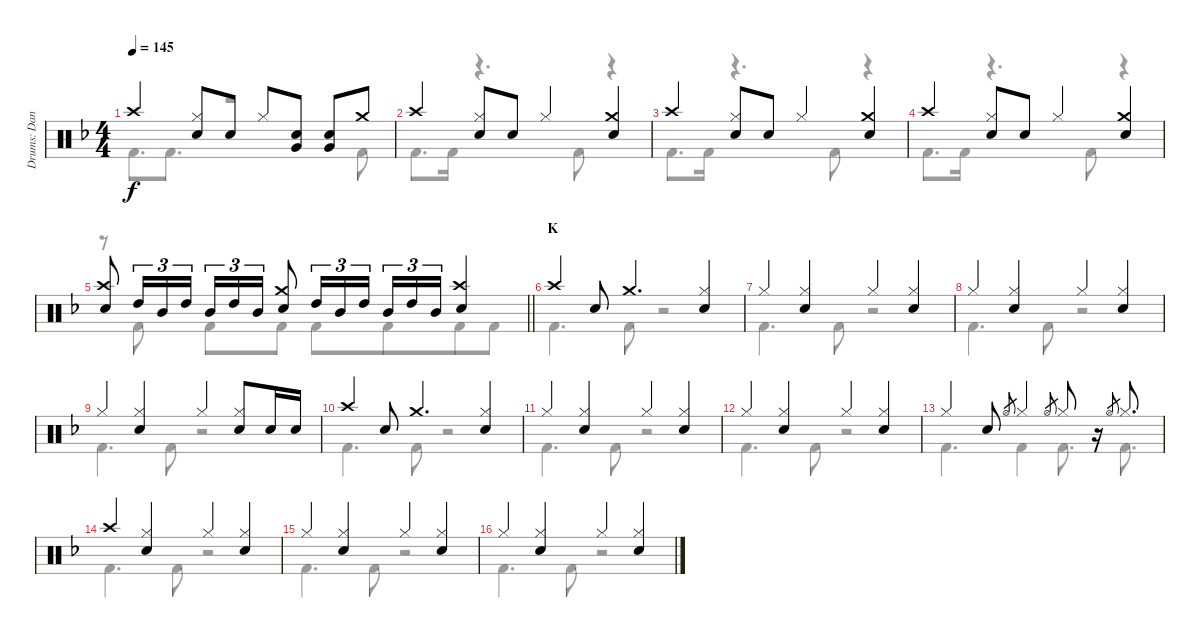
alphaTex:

\track ("Drums: Dana" "Drums: Dan") {instrument percussion}
\staff {score}
\articulation defaults
\voice
\ts (4 4)
\tempo 145
\clef neutral
\ks f "Crash high (hit)".4{dy f}
("Hi-Hat (closed)" "Snare (hit) 2").8 "Snare (hit) 2".8 "Hi-Hat (closed)".8 ("Snare (hit) 2" "Very Low Tom (hit)").8 ("Snare (hit) 2" "Very Low Tom (hit)").8 "Crash medium (hit)".8 |
"Crash high (hit)".4 ("Hi-Hat (closed)" "Snare (hit) 2").8 "Snare (hit) 2".8 "Hi-Hat (closed)".4 ("Crash medium (hit)" "Snare (hit) 2").4 |
"Crash high (hit)".4 ("Hi-Hat (closed)" "Snare (hit) 2").8 "Snare (hit) 2".8 "Hi-Hat (closed)".4 ("Crash medium (hit)" "Snare (hit) 2").4 |
"Crash high (hit)".4 ("Hi-Hat (closed)" "Snare (hit) 2").8 "Snare (hit) 2".8 "Hi-Hat (closed)".4 ("Crash medium (hit)" "Snare (hit) 2").4 |
\barLineRight lightlight
("Crash high (hit)" "Snare (hit) 2").8 "High Tom (hit)".16{tu (3 2)} "Mid Tom (hit)".16{tu (3 2)} "High Tom (hit)".16{tu (3 2)} "Mid Tom (hit)".16{tu (3 2)} "High Tom (hit)".16{tu (3 2)} "Mid Tom (hit)".16{tu (3 2)} ("Crash medium (hit)" "Snare (hit) 2").8 "High Tom (hit)".16{tu (3 2)} "Mid Tom (hit)".16{tu (3 2)} "High Tom (hit)".16{tu (3 2) beam splitsecondary} "Mid Tom (hit)".16{tu (3 2)} "High Tom (hit)".16{tu (3 2)} "Mid Tom (hit)".16{tu (3 2)} ("Crash high (hit)" "Snare (hit) 2").4 |
\section ("" "K")
"Crash high (hit)".4 "Snare (hit) 2".8 "Crash medium (hit)".4{d} ("Hi-Hat (closed)" "Snare (hit) 2").4 |
"Hi-Hat (closed)".4 ("Hi-Hat (closed)" "Snare (hit) 2").4 "Hi-Hat (closed)".4 ("Hi-Hat (closed)" "Snare (hit) 2").4 |
"Hi-Hat (closed)".4 ("Hi-Hat (closed)" "Snare (hit) 2").4 "Hi-Hat (closed)".4 ("Hi-Hat (closed)" "Snare (hit) 2").4 |
"Hi-Hat (closed)".4 ("Hi-Hat (closed)" "Snare (hit) 2").4 "Hi-Hat (closed)".4 ("Hi-Hat (closed)" "Snare (hit) 2").8 "Snare (hit) 2".16 "Snare (hit) 2".16 |
"Crash high (hit)".4 "Snare (hit) 2".8 "Crash medium (hit)".4{d} ("Hi-Hat (closed)" "Snare (hit) 2").4 |
"Hi-Hat (closed)".4 ("Hi-Hat (closed)" "Snare (hit) 2").4 "Hi-Hat (closed)".4 ("Hi-Hat (closed)" "Snare (hit) 2").4 |
"Hi-Hat (closed)".4 ("Hi-Hat (closed)" "Snare (hit) 2").4 "Hi-Hat (closed)".4 ("Hi-Hat (closed)" "Snare (hit) 2").4 |
"Hi-Hat (closed)".4 "Snare (hit) 2".8 "Hi-Hat (open)".8{gr} "Hi-Hat (closed)".4 "Hi-Hat (open)".8{gr} "Hi-Hat (closed)".8 r.16 "Hi-Hat (open)".8{gr} "Hi-Hat (closed)".8{d} |
"Crash high (hit)".4 ("Hi-Hat (closed)" "Snare (hit) 2").4 "Hi-Hat (closed)".4 ("Hi-Hat (closed)" "Snare (hit) 2").4 |
"Hi-Hat (closed)".4 ("Hi-Hat (closed)" "Snare (hit) 2").4 "Hi-Hat (closed)".4 ("Hi-Hat (closed)" "Snare (hit) 2").4 |
"Hi-Hat (closed)".4 ("Hi-Hat (closed)" "Snare (hit) 2").4 "Hi-Hat (closed)".4 ("Hi-Hat (closed)" "Snare (hit) 2").4
\voice
\clef neutral
\ottava regular
\simile none
\ks f "Kick (hit) 2".8{d dy f} "Kick (hit) 2".8{d}
r.2 "Kick (hit) 2".8 |
"Kick (hit) 2".8{d} "Kick (hit) 2".16 r.4{d} "Kick (hit) 2".8 r.4 |
"Kick (hit) 2".8{d} "Kick (hit) 2".16 r.4{d} "Kick (hit) 2".8 r.4 |
"Kick (hit) 2".8{d} "Kick (hit) 2".16 r.4{d} "Kick (hit) 2".8 r.4 |
\barLineRight lightlight
r.8 "Kick (hit) 2".8 "Kick (hit) 2".8 "Kick (hit) 2".8 "Kick (hit) 2".8 "Kick (hit) 2".8{beam merge} "Kick (hit) 2".8 "Kick (hit) 2".8 |
"Kick (hit) 2".4{d} "Kick (hit) 2".8 r.2 |
"Kick (hit) 2".4{d} "Kick (hit) 2".8 r.2 |
"Kick (hit) 2".4{d} "Kick (hit) 2".8 r.2 |
"Kick (hit) 2".4{d} "Kick (hit) 2".8 r.2 |
"Kick (hit) 2".4{d} "Kick (hit) 2".8 r.2 |
"Kick (hit) 2".4{d} "Kick (hit) 2".8 r.2 |
"Kick (hit) 2".4{d} "Kick (hit) 2".8 r.2 |
"Kick (hit) 2".4{d} "Kick (hit) 2".4 "Kick (hit) 2".8{d} "Kick (hit) 2".8{d} |
"Kick (hit) 2".4{d} "Kick (hit) 2".8 r.2 |
"Kick (hit) 2".4{d} "Kick (hit) 2".8 r.2 |
"Kick (hit) 2".4{d} "Kick (hit) 2".8 r.2
